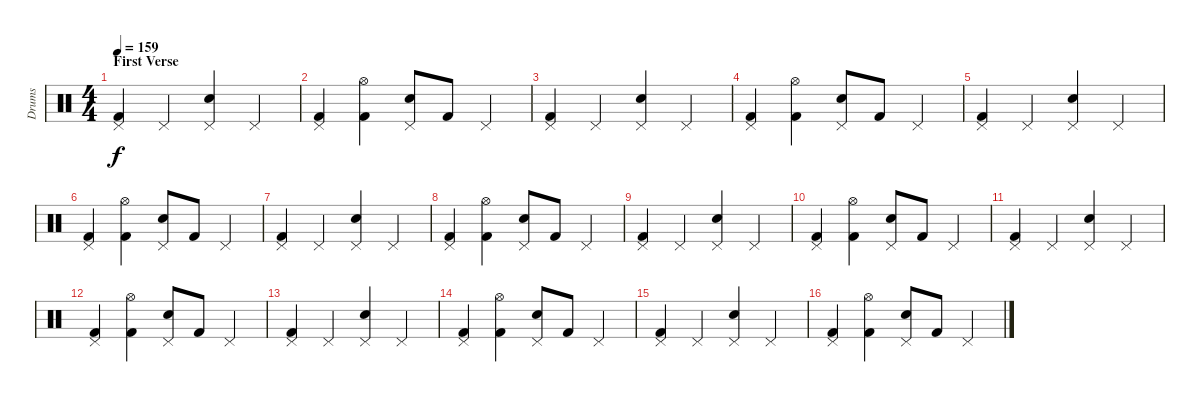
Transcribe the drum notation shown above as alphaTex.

\track ("Drums" "Drums") {instrument percussion}
\staff {score}
\articulation defaults
\ts (4 4)
\section ("" "First Verse")
\tempo 159
\clef neutral
\ks c
("Pedal Hi-Hat (hit)" "Kick (hit) 2").4{dy f} "Pedal Hi-Hat (hit)".4 ("Pedal Hi-Hat (hit)" "Snare (hit) 2").4 "Pedal Hi-Hat (hit)".4 |
("Pedal Hi-Hat (hit)" "Kick (hit) 2").4 ("Hi-Hat (open)" "Kick (hit) 2").4 ("Pedal Hi-Hat (hit)" "Snare (hit) 2").8 "Kick (hit) 2".8 "Pedal Hi-Hat (hit)".4 |
("Pedal Hi-Hat (hit)" "Kick (hit) 2").4 "Pedal Hi-Hat (hit)".4 ("Pedal Hi-Hat (hit)" "Snare (hit) 2").4 "Pedal Hi-Hat (hit)".4 |
("Pedal Hi-Hat (hit)" "Kick (hit) 2").4 ("Hi-Hat (open)" "Kick (hit) 2").4 ("Pedal Hi-Hat (hit)" "Snare (hit) 2").8 "Kick (hit) 2".8 "Pedal Hi-Hat (hit)".4 |
("Pedal Hi-Hat (hit)" "Kick (hit) 2").4 "Pedal Hi-Hat (hit)".4 ("Pedal Hi-Hat (hit)" "Snare (hit) 2").4 "Pedal Hi-Hat (hit)".4 |
("Pedal Hi-Hat (hit)" "Kick (hit) 2").4 ("Hi-Hat (open)" "Kick (hit) 2").4 ("Pedal Hi-Hat (hit)" "Snare (hit) 2").8 "Kick (hit) 2".8 "Pedal Hi-Hat (hit)".4 |
("Pedal Hi-Hat (hit)" "Kick (hit) 2").4 "Pedal Hi-Hat (hit)".4 ("Pedal Hi-Hat (hit)" "Snare (hit) 2").4 "Pedal Hi-Hat (hit)".4 |
("Pedal Hi-Hat (hit)" "Kick (hit) 2").4 ("Hi-Hat (open)" "Kick (hit) 2").4 ("Pedal Hi-Hat (hit)" "Snare (hit) 2").8 "Kick (hit) 2".8 "Pedal Hi-Hat (hit)".4 |
("Pedal Hi-Hat (hit)" "Kick (hit) 2").4 "Pedal Hi-Hat (hit)".4 ("Pedal Hi-Hat (hit)" "Snare (hit) 2").4 "Pedal Hi-Hat (hit)".4 |
("Pedal Hi-Hat (hit)" "Kick (hit) 2").4 ("Hi-Hat (open)" "Kick (hit) 2").4 ("Pedal Hi-Hat (hit)" "Snare (hit) 2").8 "Kick (hit) 2".8 "Pedal Hi-Hat (hit)".4 |
("Pedal Hi-Hat (hit)" "Kick (hit) 2").4 "Pedal Hi-Hat (hit)".4 ("Pedal Hi-Hat (hit)" "Snare (hit) 2").4 "Pedal Hi-Hat (hit)".4 |
("Pedal Hi-Hat (hit)" "Kick (hit) 2").4 ("Hi-Hat (open)" "Kick (hit) 2").4 ("Pedal Hi-Hat (hit)" "Snare (hit) 2").8 "Kick (hit) 2".8 "Pedal Hi-Hat (hit)".4 |
("Pedal Hi-Hat (hit)" "Kick (hit) 2").4 "Pedal Hi-Hat (hit)".4 ("Pedal Hi-Hat (hit)" "Snare (hit) 2").4 "Pedal Hi-Hat (hit)".4 |
("Pedal Hi-Hat (hit)" "Kick (hit) 2").4 ("Hi-Hat (open)" "Kick (hit) 2").4 ("Pedal Hi-Hat (hit)" "Snare (hit) 2").8 "Kick (hit) 2".8 "Pedal Hi-Hat (hit)".4 |
("Pedal Hi-Hat (hit)" "Kick (hit) 2").4 "Pedal Hi-Hat (hit)".4 ("Pedal Hi-Hat (hit)" "Snare (hit) 2").4 "Pedal Hi-Hat (hit)".4 |
("Pedal Hi-Hat (hit)" "Kick (hit) 2").4 ("Hi-Hat (open)" "Kick (hit) 2").4 ("Pedal Hi-Hat (hit)" "Snare (hit) 2").8 "Kick (hit) 2".8 "Pedal Hi-Hat (hit)".4
